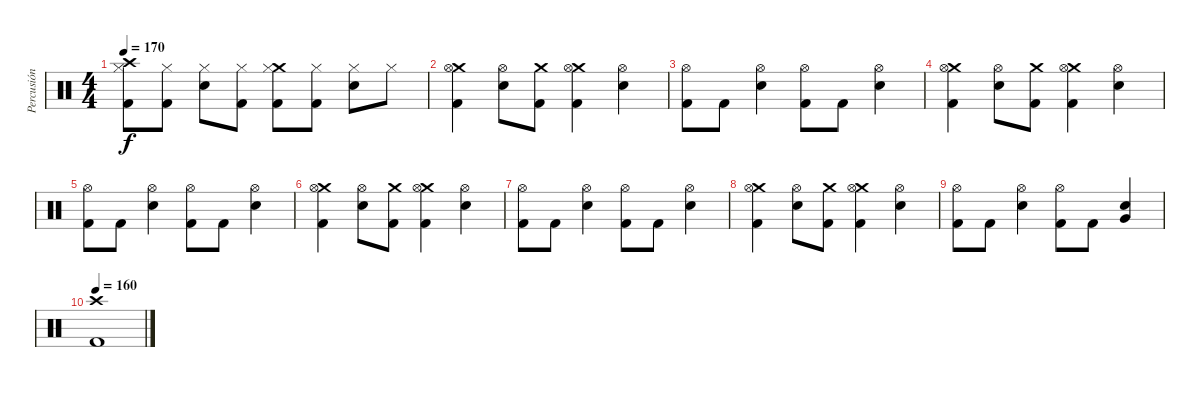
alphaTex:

\track ("Percusión" "Percusión") {instrument percussion}
\staff {score}
\articulation defaults
\ts (4 4)
\tempo 170
\clef neutral
\ks c
("Crash high (hit)" "Hi-Hat (closed)" "Kick (hit) 2").8{dy f} ("Hi-Hat (closed)" "Kick (hit) 2").8 ("Hi-Hat (closed)" "Electric Snare (hit)").8 ("Hi-Hat (closed)" "Kick (hit) 2").8 ("Crash medium (hit)" "Hi-Hat (closed)" "Kick (hit) 2").8 ("Hi-Hat (closed)" "Kick (hit) 2").8 ("Hi-Hat (closed)" "Electric Snare (hit)").8 "Hi-Hat (closed)".8 |
("Crash medium (hit)" "Hi-Hat (open)" "Kick (hit) 2").4 ("Hi-Hat (open)" "Electric Snare (hit)").8 ("Crash medium (hit)" "Kick (hit) 2").8 ("Crash medium (hit)" "Hi-Hat (open)" "Kick (hit) 2").4 ("Hi-Hat (open)" "Electric Snare (hit)").4 |
("Hi-Hat (open)" "Kick (hit) 2").8 "Kick (hit) 2".8 ("Hi-Hat (open)" "Electric Snare (hit)").4 ("Hi-Hat (open)" "Kick (hit) 2").8 "Kick (hit) 2".8 ("Hi-Hat (open)" "Electric Snare (hit)").4 |
("Crash medium (hit)" "Hi-Hat (open)" "Kick (hit) 2").4 ("Hi-Hat (open)" "Electric Snare (hit)").8 ("Crash medium (hit)" "Kick (hit) 2").8 ("Crash medium (hit)" "Hi-Hat (open)" "Kick (hit) 2").4 ("Hi-Hat (open)" "Electric Snare (hit)").4 |
("Hi-Hat (open)" "Kick (hit) 2").8 "Kick (hit) 2".8 ("Hi-Hat (open)" "Electric Snare (hit)").4 ("Hi-Hat (open)" "Kick (hit) 2").8 "Kick (hit) 2".8 ("Hi-Hat (open)" "Electric Snare (hit)").4 |
("Crash medium (hit)" "Hi-Hat (open)" "Kick (hit) 2").4 ("Hi-Hat (open)" "Electric Snare (hit)").8 ("Crash medium (hit)" "Kick (hit) 2").8 ("Crash medium (hit)" "Hi-Hat (open)" "Kick (hit) 2").4 ("Hi-Hat (open)" "Electric Snare (hit)").4 |
("Hi-Hat (open)" "Kick (hit) 2").8 "Kick (hit) 2".8 ("Hi-Hat (open)" "Electric Snare (hit)").4 ("Hi-Hat (open)" "Kick (hit) 2").8 "Kick (hit) 2".8 ("Hi-Hat (open)" "Electric Snare (hit)").4 |
("Crash medium (hit)" "Hi-Hat (open)" "Kick (hit) 2").4 ("Hi-Hat (open)" "Electric Snare (hit)").8 ("Crash medium (hit)" "Kick (hit) 2").8 ("Crash medium (hit)" "Hi-Hat (open)" "Kick (hit) 2").4 ("Hi-Hat (open)" "Electric Snare (hit)").4 |
("Hi-Hat (open)" "Kick (hit) 2").8 "Kick (hit) 2".8 ("Hi-Hat (open)" "Electric Snare (hit)").4 ("Hi-Hat (open)" "Kick (hit) 2").8 "Kick (hit) 2".8 ("Very Low Tom (hit)" "Electric Snare (hit)").4 |
\tempo 160
("Crash high (hit)" "Kick (hit) 2").1
